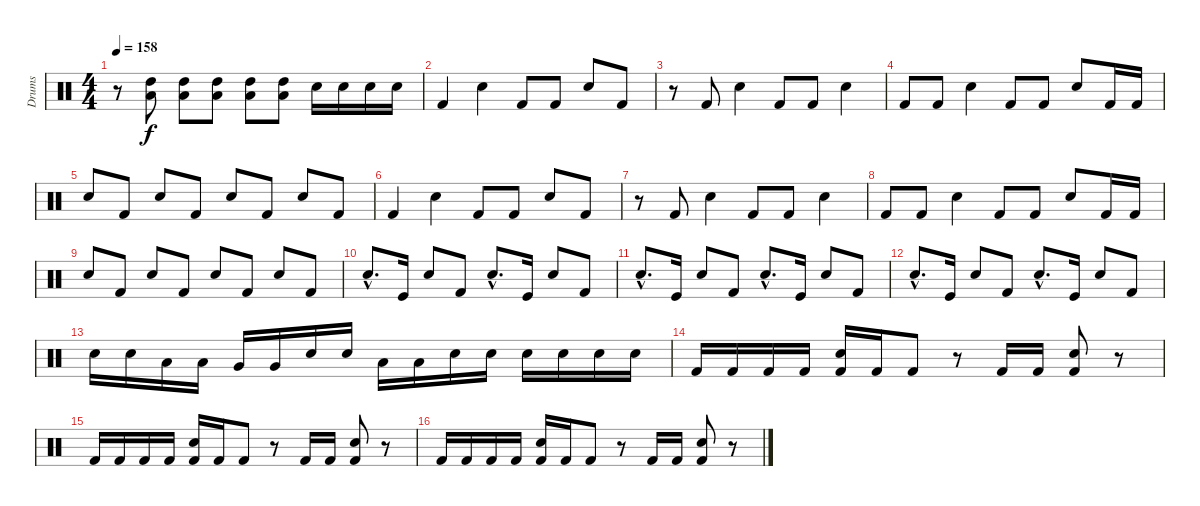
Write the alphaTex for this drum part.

\track ("Drums" "Drums") {instrument percussion}
\staff {score}
\articulation defaults
\ts (4 4)
\tempo 158
\clef neutral
\ks c
r.8{dy f} ("High Tom (hit)" "Low Tom (hit)").8 ("Low Tom (hit)" "High Tom (hit)").8 ("Low Tom (hit)" "High Tom (hit)").8 ("Low Tom (hit)" "High Tom (hit)").8 ("Low Tom (hit)" "High Tom (hit)").8 "Snare (hit) 2".16 "Snare (hit) 2".16 "Snare (hit) 2".16 "Snare (hit) 2".16 |
"Kick (hit) 2".4 "Snare (hit) 2".4 "Kick (hit) 2".8 "Kick (hit) 2".8 "Snare (hit) 2".8 "Kick (hit) 2".8 |
r.8 "Kick (hit) 2".8 "Snare (hit) 2".4 "Kick (hit) 2".8 "Kick (hit) 2".8 "Snare (hit) 2".4 |
"Kick (hit) 2".8 "Kick (hit) 2".8 "Snare (hit) 2".4 "Kick (hit) 2".8 "Kick (hit) 2".8 "Snare (hit) 2".8 "Kick (hit) 2".16 "Kick (hit) 2".16 |
"Snare (hit) 2".8 "Kick (hit) 2".8 "Snare (hit) 2".8 "Kick (hit) 2".8 "Snare (hit) 2".8 "Kick (hit) 2".8 "Snare (hit) 2".8 "Kick (hit) 2".8 |
"Kick (hit) 2".4 "Snare (hit) 2".4 "Kick (hit) 2".8 "Kick (hit) 2".8 "Snare (hit) 2".8 "Kick (hit) 2".8 |
r.8 "Kick (hit) 2".8 "Snare (hit) 2".4 "Kick (hit) 2".8 "Kick (hit) 2".8 "Snare (hit) 2".4 |
"Kick (hit) 2".8 "Kick (hit) 2".8 "Snare (hit) 2".4 "Kick (hit) 2".8 "Kick (hit) 2".8 "Snare (hit) 2".8 "Kick (hit) 2".16 "Kick (hit) 2".16 |
"Snare (hit) 2".8 "Kick (hit) 2".8 "Snare (hit) 2".8 "Kick (hit) 2".8 "Snare (hit) 2".8 "Kick (hit) 2".8 "Snare (hit) 2".8 "Kick (hit) 2".8 |
"Snare (hit) 2"{hac}.8{d} "Kick (hit)".16 "Snare (hit) 2".8 "Kick (hit) 2".8 "Snare (hit) 2"{hac}.8{d} "Kick (hit)".16 "Snare (hit) 2".8 "Kick (hit) 2".8 |
"Snare (hit) 2"{hac}.8{d} "Kick (hit)".16 "Snare (hit) 2".8 "Kick (hit) 2".8 "Snare (hit) 2"{hac}.8{d} "Kick (hit)".16 "Snare (hit) 2".8 "Kick (hit) 2".8 |
"Snare (hit) 2"{hac}.8{d} "Kick (hit)".16 "Snare (hit) 2".8 "Kick (hit) 2".8 "Snare (hit) 2"{hac}.8{d} "Kick (hit)".16 "Snare (hit) 2".8 "Kick (hit) 2".8 |
"Snare (hit) 2".16 "Snare (hit) 2".16 "Low Tom (hit)".16 "Low Tom (hit)".16 "Very Low Tom (hit)".16 "Very Low Tom (hit)".16 "Snare (hit) 2".16 "Snare (hit) 2".16 "Low Tom (hit)".16 "Low Tom (hit)".16 "Snare (hit) 2".16 "Snare (hit) 2".16 "Snare (hit) 2".16 "Snare (hit) 2".16 "Snare (hit) 2".16 "Snare (hit) 2".16 |
"Kick (hit) 2".16 "Kick (hit) 2".16 "Kick (hit) 2".16 "Kick (hit) 2".16 ("Snare (hit) 2" "Kick (hit) 2").16 "Kick (hit) 2".16 "Kick (hit) 2".8 r.8 "Kick (hit) 2".16 "Kick (hit) 2".16 ("Snare (hit) 2" "Kick (hit) 2").8 r.8 |
"Kick (hit) 2".16 "Kick (hit) 2".16 "Kick (hit) 2".16 "Kick (hit) 2".16 ("Snare (hit) 2" "Kick (hit) 2").16 "Kick (hit) 2".16 "Kick (hit) 2".8 r.8 "Kick (hit) 2".16 "Kick (hit) 2".16 ("Snare (hit) 2" "Kick (hit) 2").8 r.8 |
"Kick (hit) 2".16 "Kick (hit) 2".16 "Kick (hit) 2".16 "Kick (hit) 2".16 ("Snare (hit) 2" "Kick (hit) 2").16 "Kick (hit) 2".16 "Kick (hit) 2".8 r.8 "Kick (hit) 2".16 "Kick (hit) 2".16 ("Snare (hit) 2" "Kick (hit) 2").8 r.8
